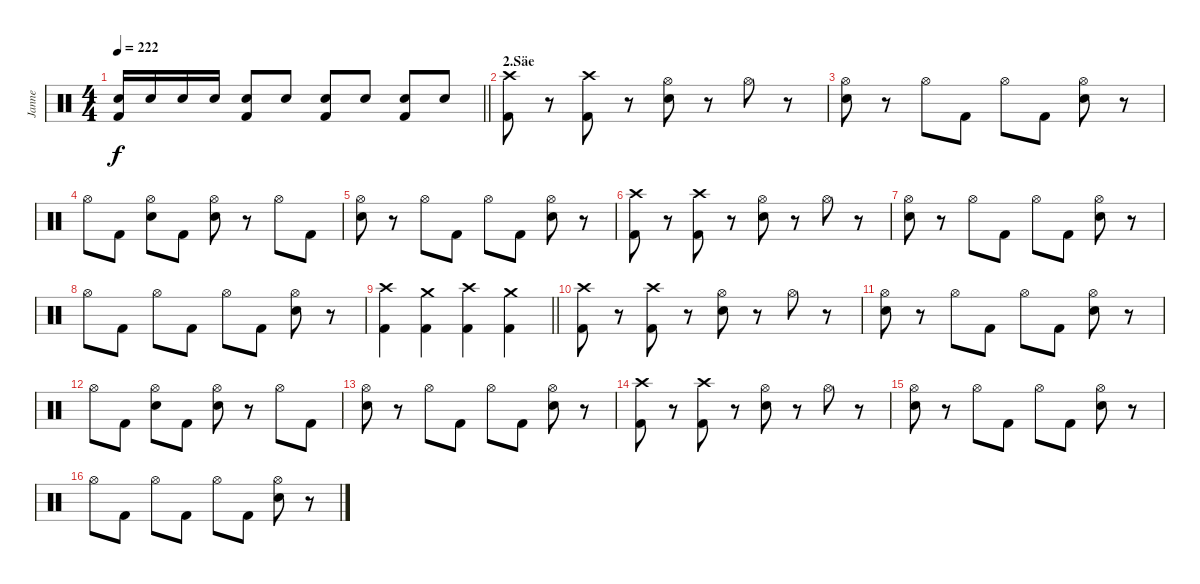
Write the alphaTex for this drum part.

\track ("Janne" "Janne") {instrument percussion}
\staff {score}
\articulation defaults
\ts (4 4)
\tempo 222
\clef neutral
\barLineRight lightlight
\ks c
("Electric Snare (hit)" "Kick (hit) 2").16{dy f} "Electric Snare (hit)".16 "Electric Snare (hit)".16 "Electric Snare (hit)".16 ("Electric Snare (hit)" "Kick (hit) 2").8 "Electric Snare (hit)".8 ("Electric Snare (hit)" "Kick (hit) 2").8 "Electric Snare (hit)".8 ("Electric Snare (hit)" "Kick (hit) 2").8 "Electric Snare (hit)".8 |
\section ("" "2.Säe")
("Crash high (hit)" "Kick (hit) 2").8 r.8 ("Crash high (hit)" "Kick (hit) 2").8 r.8 ("Hi-Hat (open)" "Electric Snare (hit)").8 r.8 "Hi-Hat (open)".8 r.8 |
("Hi-Hat (open)" "Electric Snare (hit)").8 r.8 "Hi-Hat (open)".8 "Kick (hit) 2".8 "Hi-Hat (open)".8 "Kick (hit) 2".8 ("Hi-Hat (open)" "Electric Snare (hit)").8 r.8 |
"Hi-Hat (open)".8 "Kick (hit) 2".8 ("Hi-Hat (open)" "Electric Snare (hit)").8 "Kick (hit) 2".8 ("Hi-Hat (open)" "Electric Snare (hit)").8 r.8 "Hi-Hat (open)".8 "Kick (hit) 2".8 |
("Hi-Hat (open)" "Electric Snare (hit)").8 r.8 "Hi-Hat (open)".8 "Kick (hit) 2".8 "Hi-Hat (open)".8 "Kick (hit) 2".8 ("Hi-Hat (open)" "Electric Snare (hit)").8 r.8 |
("Crash high (hit)" "Kick (hit) 2").8 r.8 ("Crash high (hit)" "Kick (hit) 2").8 r.8 ("Hi-Hat (open)" "Electric Snare (hit)").8 r.8 "Hi-Hat (open)".8 r.8 |
("Hi-Hat (open)" "Electric Snare (hit)").8 r.8 "Hi-Hat (open)".8 "Kick (hit) 2".8 "Hi-Hat (open)".8 "Kick (hit) 2".8 ("Hi-Hat (open)" "Electric Snare (hit)").8 r.8 |
"Hi-Hat (open)".8 "Kick (hit) 2".8 "Hi-Hat (open)".8 "Kick (hit) 2".8 "Hi-Hat (open)".8 "Kick (hit) 2".8 ("Hi-Hat (open)" "Electric Snare (hit)").8 r.8 |
\barLineRight lightlight
("Crash high (hit)" "Kick (hit) 2").4 ("Crash medium (hit)" "Kick (hit) 2").4 ("Crash high (hit)" "Kick (hit) 2").4 ("Crash medium (hit)" "Kick (hit) 2").4 |
("Crash high (hit)" "Kick (hit) 2").8 r.8 ("Crash high (hit)" "Kick (hit) 2").8 r.8 ("Hi-Hat (open)" "Electric Snare (hit)").8 r.8 "Hi-Hat (open)".8 r.8 |
("Hi-Hat (open)" "Electric Snare (hit)").8 r.8 "Hi-Hat (open)".8 "Kick (hit) 2".8 "Hi-Hat (open)".8 "Kick (hit) 2".8 ("Hi-Hat (open)" "Electric Snare (hit)").8 r.8 |
"Hi-Hat (open)".8 "Kick (hit) 2".8 ("Hi-Hat (open)" "Electric Snare (hit)").8 "Kick (hit) 2".8 ("Hi-Hat (open)" "Electric Snare (hit)").8 r.8 "Hi-Hat (open)".8 "Kick (hit) 2".8 |
("Hi-Hat (open)" "Electric Snare (hit)").8 r.8 "Hi-Hat (open)".8 "Kick (hit) 2".8 "Hi-Hat (open)".8 "Kick (hit) 2".8 ("Hi-Hat (open)" "Electric Snare (hit)").8 r.8 |
("Crash high (hit)" "Kick (hit) 2").8 r.8 ("Crash high (hit)" "Kick (hit) 2").8 r.8 ("Hi-Hat (open)" "Electric Snare (hit)").8 r.8 "Hi-Hat (open)".8 r.8 |
("Hi-Hat (open)" "Electric Snare (hit)").8 r.8 "Hi-Hat (open)".8 "Kick (hit) 2".8 "Hi-Hat (open)".8 "Kick (hit) 2".8 ("Hi-Hat (open)" "Electric Snare (hit)").8 r.8 |
"Hi-Hat (open)".8 "Kick (hit) 2".8 "Hi-Hat (open)".8 "Kick (hit) 2".8 "Hi-Hat (open)".8 "Kick (hit) 2".8 ("Hi-Hat (open)" "Electric Snare (hit)").8 r.8
